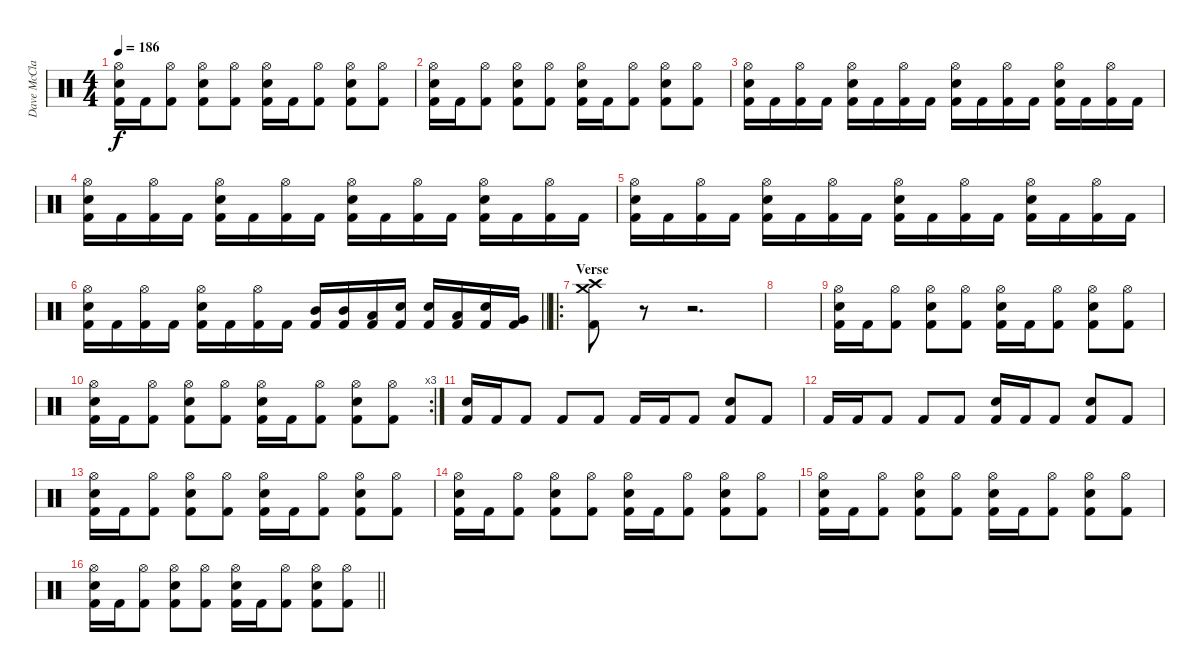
\track ("Dave McClain" "Dave McCla") {instrument percussion}
\staff {score}
\articulation defaults
\ts (4 4)
\tempo 186
\clef neutral
\ks c
("Hi-Hat (open)" "Snare (hit) 2" "Kick (hit) 2").16{dy f} "Kick (hit) 2".16 ("Hi-Hat (open)" "Kick (hit) 2").8 ("Hi-Hat (open)" "Snare (hit) 2" "Kick (hit) 2").8 ("Hi-Hat (open)" "Kick (hit) 2").8 ("Hi-Hat (open)" "Snare (hit) 2" "Kick (hit) 2").16 "Kick (hit) 2".16 ("Hi-Hat (open)" "Kick (hit) 2").8 ("Hi-Hat (open)" "Snare (hit) 2" "Kick (hit) 2").8 ("Hi-Hat (open)" "Kick (hit) 2").8 |
("Hi-Hat (open)" "Snare (hit) 2" "Kick (hit) 2").16 "Kick (hit) 2".16 ("Hi-Hat (open)" "Kick (hit) 2").8 ("Hi-Hat (open)" "Snare (hit) 2" "Kick (hit) 2").8 ("Hi-Hat (open)" "Kick (hit) 2").8 ("Hi-Hat (open)" "Snare (hit) 2" "Kick (hit) 2").16 "Kick (hit) 2".16 ("Hi-Hat (open)" "Kick (hit) 2").8 ("Hi-Hat (open)" "Snare (hit) 2" "Kick (hit) 2").8 ("Hi-Hat (open)" "Kick (hit) 2").8 |
("Hi-Hat (open)" "Snare (hit) 2" "Kick (hit) 2").16 "Kick (hit) 2".16 ("Hi-Hat (open)" "Kick (hit) 2").16 "Kick (hit) 2".16 ("Hi-Hat (open)" "Snare (hit) 2" "Kick (hit) 2").16 "Kick (hit) 2".16 ("Hi-Hat (open)" "Kick (hit) 2").16 "Kick (hit) 2".16 ("Hi-Hat (open)" "Snare (hit) 2" "Kick (hit) 2").16 "Kick (hit) 2".16 ("Hi-Hat (open)" "Kick (hit) 2").16 "Kick (hit) 2".16 ("Hi-Hat (open)" "Snare (hit) 2" "Kick (hit) 2").16 "Kick (hit) 2".16 ("Hi-Hat (open)" "Kick (hit) 2").16 "Kick (hit) 2".16 |
("Hi-Hat (open)" "Snare (hit) 2" "Kick (hit) 2").16 "Kick (hit) 2".16 ("Hi-Hat (open)" "Kick (hit) 2").16 "Kick (hit) 2".16 ("Hi-Hat (open)" "Snare (hit) 2" "Kick (hit) 2").16 "Kick (hit) 2".16 ("Hi-Hat (open)" "Kick (hit) 2").16 "Kick (hit) 2".16 ("Hi-Hat (open)" "Snare (hit) 2" "Kick (hit) 2").16 "Kick (hit) 2".16 ("Hi-Hat (open)" "Kick (hit) 2").16 "Kick (hit) 2".16 ("Hi-Hat (open)" "Snare (hit) 2" "Kick (hit) 2").16 "Kick (hit) 2".16 ("Hi-Hat (open)" "Kick (hit) 2").16 "Kick (hit) 2".16 |
("Hi-Hat (open)" "Snare (hit) 2" "Kick (hit) 2").16 "Kick (hit) 2".16 ("Hi-Hat (open)" "Kick (hit) 2").16 "Kick (hit) 2".16 ("Hi-Hat (open)" "Snare (hit) 2" "Kick (hit) 2").16 "Kick (hit) 2".16 ("Hi-Hat (open)" "Kick (hit) 2").16 "Kick (hit) 2".16 ("Hi-Hat (open)" "Snare (hit) 2" "Kick (hit) 2").16 "Kick (hit) 2".16 ("Hi-Hat (open)" "Kick (hit) 2").16 "Kick (hit) 2".16 ("Hi-Hat (open)" "Snare (hit) 2" "Kick (hit) 2").16 "Kick (hit) 2".16 ("Hi-Hat (open)" "Kick (hit) 2").16 "Kick (hit) 2".16 |
\barLineRight lightlight
("Hi-Hat (open)" "Snare (hit) 2" "Kick (hit) 2").16 "Kick (hit) 2".16 ("Hi-Hat (open)" "Kick (hit) 2").16 "Kick (hit) 2".16 ("Hi-Hat (open)" "Snare (hit) 2" "Kick (hit) 2").16 "Kick (hit) 2".16 ("Hi-Hat (open)" "Kick (hit) 2").16 "Kick (hit) 2".16 ("Mid Tom (hit)" "Kick (hit) 2").16 ("Mid Tom (hit)" "Kick (hit) 2").16 ("Low Tom (hit)" "Kick (hit) 2").16 ("Snare (hit) 2" "Kick (hit) 2").16 ("Snare (hit) 2" "Kick (hit) 2").16 ("Low Tom (hit)" "Kick (hit) 2").16 ("Snare (hit) 2" "Kick (hit) 2").16 ("Very Low Tom (hit)" "Kick (hit) 2").16 |
\ro
\section ("" "Verse")
("Crash medium (hit)" "Crash high (hit)" "Kick (hit) 2").8 r.8 r.2{d} |
|
("Hi-Hat (open)" "Snare (hit) 2" "Kick (hit) 2").16 "Kick (hit) 2".16 ("Hi-Hat (open)" "Kick (hit) 2").8 ("Hi-Hat (open)" "Snare (hit) 2" "Kick (hit) 2").8 ("Hi-Hat (open)" "Kick (hit) 2").8 ("Hi-Hat (open)" "Snare (hit) 2" "Kick (hit) 2").16 "Kick (hit) 2".16 ("Hi-Hat (open)" "Kick (hit) 2").8 ("Hi-Hat (open)" "Snare (hit) 2" "Kick (hit) 2").8 ("Hi-Hat (open)" "Kick (hit) 2").8 |
\rc 3
("Hi-Hat (open)" "Snare (hit) 2" "Kick (hit) 2").16 "Kick (hit) 2".16 ("Hi-Hat (open)" "Kick (hit) 2").8 ("Hi-Hat (open)" "Snare (hit) 2" "Kick (hit) 2").8 ("Hi-Hat (open)" "Kick (hit) 2").8 ("Hi-Hat (open)" "Snare (hit) 2" "Kick (hit) 2").16 "Kick (hit) 2".16 ("Hi-Hat (open)" "Kick (hit) 2").8 ("Hi-Hat (open)" "Snare (hit) 2" "Kick (hit) 2").8 ("Hi-Hat (open)" "Kick (hit) 2").8 |
("Snare (hit) 2" "Kick (hit) 2").16 "Kick (hit) 2".16 "Kick (hit) 2".8 "Kick (hit) 2".8 "Kick (hit) 2".8 "Kick (hit) 2".16 "Kick (hit) 2".16 "Kick (hit) 2".8 ("Snare (hit) 2" "Kick (hit) 2").8 "Kick (hit) 2".8 |
"Kick (hit) 2".16 "Kick (hit) 2".16 "Kick (hit) 2".8 "Kick (hit) 2".8 "Kick (hit) 2".8 ("Snare (hit) 2" "Kick (hit) 2").16 "Kick (hit) 2".16 "Kick (hit) 2".8 ("Snare (hit) 2" "Kick (hit) 2").8 "Kick (hit) 2".8 |
("Hi-Hat (open)" "Snare (hit) 2" "Kick (hit) 2").16 "Kick (hit) 2".16 ("Hi-Hat (open)" "Kick (hit) 2").8 ("Hi-Hat (open)" "Snare (hit) 2" "Kick (hit) 2").8 ("Hi-Hat (open)" "Kick (hit) 2").8 ("Hi-Hat (open)" "Snare (hit) 2" "Kick (hit) 2").16 "Kick (hit) 2".16 ("Hi-Hat (open)" "Kick (hit) 2").8 ("Hi-Hat (open)" "Snare (hit) 2" "Kick (hit) 2").8 ("Hi-Hat (open)" "Kick (hit) 2").8 |
("Hi-Hat (open)" "Snare (hit) 2" "Kick (hit) 2").16 "Kick (hit) 2".16 ("Hi-Hat (open)" "Kick (hit) 2").8 ("Hi-Hat (open)" "Snare (hit) 2" "Kick (hit) 2").8 ("Hi-Hat (open)" "Kick (hit) 2").8 ("Hi-Hat (open)" "Snare (hit) 2" "Kick (hit) 2").16 "Kick (hit) 2".16 ("Hi-Hat (open)" "Kick (hit) 2").8 ("Hi-Hat (open)" "Snare (hit) 2" "Kick (hit) 2").8 ("Hi-Hat (open)" "Kick (hit) 2").8 |
("Hi-Hat (open)" "Snare (hit) 2" "Kick (hit) 2").16 "Kick (hit) 2".16 ("Hi-Hat (open)" "Kick (hit) 2").8 ("Hi-Hat (open)" "Snare (hit) 2" "Kick (hit) 2").8 ("Hi-Hat (open)" "Kick (hit) 2").8 ("Hi-Hat (open)" "Snare (hit) 2" "Kick (hit) 2").16 "Kick (hit) 2".16 ("Hi-Hat (open)" "Kick (hit) 2").8 ("Hi-Hat (open)" "Snare (hit) 2" "Kick (hit) 2").8 ("Hi-Hat (open)" "Kick (hit) 2").8 |
\barLineRight lightlight
("Hi-Hat (open)" "Snare (hit) 2" "Kick (hit) 2").16 "Kick (hit) 2".16 ("Hi-Hat (open)" "Kick (hit) 2").8 ("Hi-Hat (open)" "Snare (hit) 2" "Kick (hit) 2").8 ("Hi-Hat (open)" "Kick (hit) 2").8 ("Hi-Hat (open)" "Snare (hit) 2" "Kick (hit) 2").16 "Kick (hit) 2".16 ("Hi-Hat (open)" "Kick (hit) 2").8 ("Hi-Hat (open)" "Snare (hit) 2" "Kick (hit) 2").8 ("Hi-Hat (open)" "Kick (hit) 2").8
